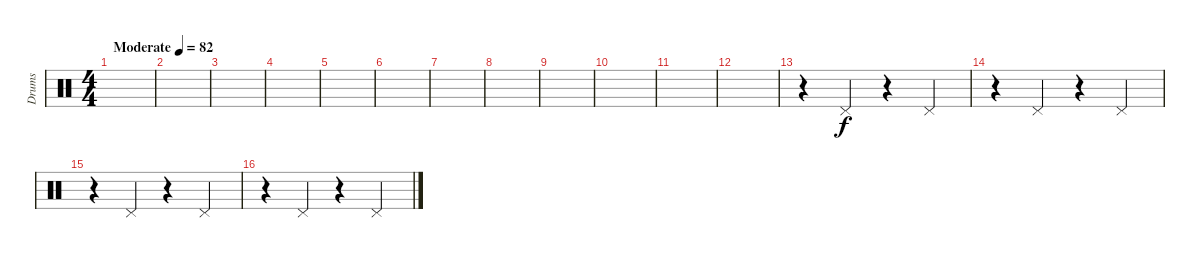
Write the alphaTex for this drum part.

\track ("Drums" "Drums") {instrument percussion}
\staff {score}
\articulation defaults
\ts (4 4)
\tempo (82 "Moderate")
\clef neutral
\ks c
|
|
|
|
|
|
|
|
|
|
|
|
r.4 "Pedal Hi-Hat (hit)".4 r.4 "Pedal Hi-Hat (hit)".4 |
r.4 "Pedal Hi-Hat (hit)".4 r.4 "Pedal Hi-Hat (hit)".4 |
r.4 "Pedal Hi-Hat (hit)".4 r.4 "Pedal Hi-Hat (hit)".4 |
r.4 "Pedal Hi-Hat (hit)".4 r.4 "Pedal Hi-Hat (hit)".4
